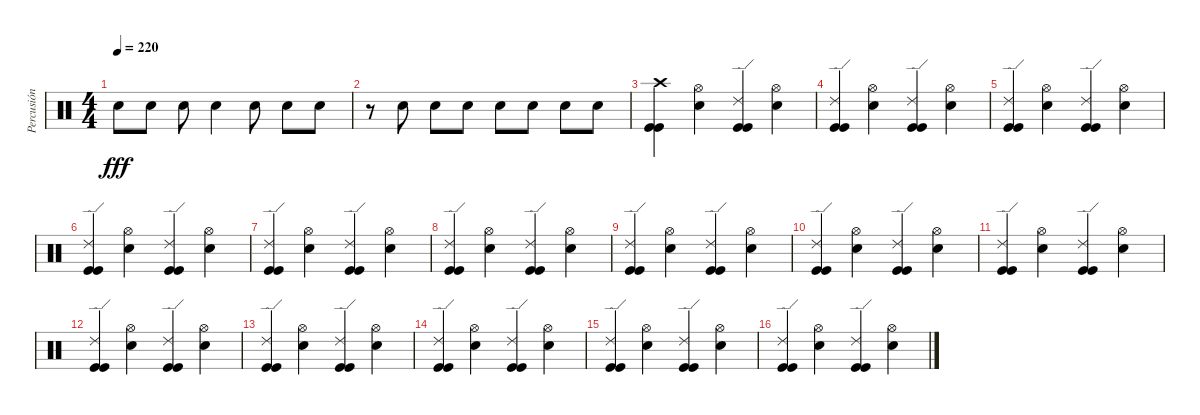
\track ("Percusión" "Percusión") {instrument percussion}
\staff {score}
\articulation defaults
\ts (4 4)
\tempo 220
\clef neutral
\ks c "Snare (hit) 2".8{dy fff} "Snare (hit) 2".8 "Snare (hit) 2".8 "Snare (hit) 2".4 "Snare (hit) 2".8 "Snare (hit) 2".8 "Snare (hit) 2".8
|
r.8 "Snare (hit) 2".8 "Snare (hit) 2".8 "Snare (hit) 2".8 "Snare (hit) 2".8 "Snare (hit) 2".8 "Snare (hit) 2".8 "Snare (hit) 2".8 |
("Crash high (hit)" "Kick (hit)" "Kick (hit)").4 ("Hi-Hat (open)" "Snare (hit) 2").4 ("Ride (edge) 2" "Kick (hit)" "Kick (hit)").4 ("Hi-Hat (open)" "Snare (hit) 2").4 |
("Ride (edge) 2" "Kick (hit)" "Kick (hit)").4 ("Hi-Hat (open)" "Snare (hit) 2").4 ("Ride (edge) 2" "Kick (hit)" "Kick (hit)").4 ("Hi-Hat (open)" "Snare (hit) 2").4 |
("Ride (edge) 2" "Kick (hit)" "Kick (hit)").4 ("Hi-Hat (open)" "Snare (hit) 2").4 ("Ride (edge) 2" "Kick (hit)" "Kick (hit)").4 ("Hi-Hat (open)" "Snare (hit) 2").4 |
("Ride (edge) 2" "Kick (hit)" "Kick (hit)").4 ("Hi-Hat (open)" "Snare (hit) 2").4 ("Ride (edge) 2" "Kick (hit)" "Kick (hit)").4 ("Hi-Hat (open)" "Snare (hit) 2").4 |
("Ride (edge) 2" "Kick (hit)" "Kick (hit)").4 ("Hi-Hat (open)" "Snare (hit) 2").4 ("Ride (edge) 2" "Kick (hit)" "Kick (hit)").4 ("Hi-Hat (open)" "Snare (hit) 2").4 |
("Ride (edge) 2" "Kick (hit)" "Kick (hit)").4 ("Hi-Hat (open)" "Snare (hit) 2").4 ("Ride (edge) 2" "Kick (hit)" "Kick (hit)").4 ("Hi-Hat (open)" "Snare (hit) 2").4 |
("Ride (edge) 2" "Kick (hit)" "Kick (hit)").4 ("Hi-Hat (open)" "Snare (hit) 2").4 ("Ride (edge) 2" "Kick (hit)" "Kick (hit)").4 ("Hi-Hat (open)" "Snare (hit) 2").4 |
("Ride (edge) 2" "Kick (hit)" "Kick (hit)").4 ("Hi-Hat (open)" "Snare (hit) 2").4 ("Ride (edge) 2" "Kick (hit)" "Kick (hit)").4 ("Hi-Hat (open)" "Snare (hit) 2").4 |
("Ride (edge) 2" "Kick (hit)" "Kick (hit)").4 ("Hi-Hat (open)" "Snare (hit) 2").4 ("Ride (edge) 2" "Kick (hit)" "Kick (hit)").4 ("Hi-Hat (open)" "Snare (hit) 2").4 |
("Ride (edge) 2" "Kick (hit)" "Kick (hit)").4 ("Hi-Hat (open)" "Snare (hit) 2").4 ("Ride (edge) 2" "Kick (hit)" "Kick (hit)").4 ("Hi-Hat (open)" "Snare (hit) 2").4 |
("Ride (edge) 2" "Kick (hit)" "Kick (hit)").4 ("Hi-Hat (open)" "Snare (hit) 2").4 ("Ride (edge) 2" "Kick (hit)" "Kick (hit)").4 ("Hi-Hat (open)" "Snare (hit) 2").4 |
("Ride (edge) 2" "Kick (hit)" "Kick (hit)").4 ("Hi-Hat (open)" "Snare (hit) 2").4 ("Ride (edge) 2" "Kick (hit)" "Kick (hit)").4 ("Hi-Hat (open)" "Snare (hit) 2").4 |
("Ride (edge) 2" "Kick (hit)" "Kick (hit)").4 ("Hi-Hat (open)" "Snare (hit) 2").4 ("Ride (edge) 2" "Kick (hit)" "Kick (hit)").4 ("Hi-Hat (open)" "Snare (hit) 2").4 |
("Ride (edge) 2" "Kick (hit)" "Kick (hit)").4 ("Hi-Hat (open)" "Snare (hit) 2").4 ("Ride (edge) 2" "Kick (hit)" "Kick (hit)").4 ("Hi-Hat (open)" "Snare (hit) 2").4
